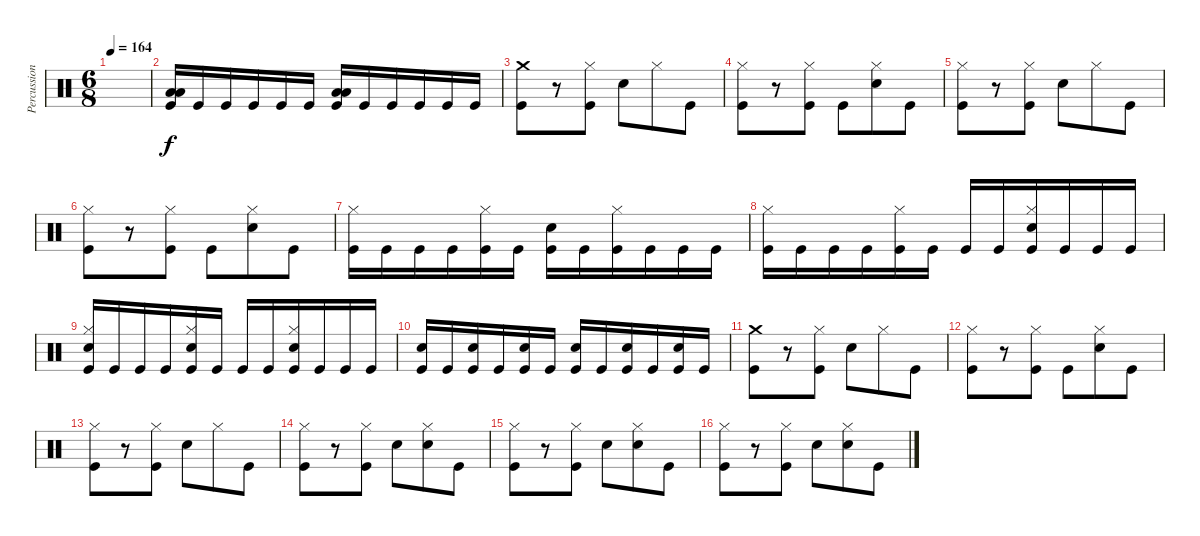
\track ("Percussion" "Percussion") {instrument percussion}
\staff {score}
\articulation defaults
\ts (6 8)
\tempo 164
\clef neutral
\ks c
|
("Low Tom (hit)" "Low Floor Tom (hit)" "Kick (hit)").16{dy f} "Kick (hit)".16 "Kick (hit)".16 "Kick (hit)".16 "Kick (hit)".16 "Kick (hit)".16 ("Low Tom (hit)" "Low Floor Tom (hit)" "Kick (hit)").16 "Kick (hit)".16 "Kick (hit)".16 "Kick (hit)".16 "Kick (hit)".16 "Kick (hit)".16 |
("Crash medium (hit)" "Kick (hit)").8 r.8 ("Hi-Hat (closed)" "Kick (hit)").8 "Snare (hit) 2".8 "Hi-Hat (closed)".8 "Kick (hit)".8 |
("Hi-Hat (closed)" "Kick (hit)").8 r.8 ("Hi-Hat (closed)" "Kick (hit)").8 "Kick (hit)".8 ("Hi-Hat (closed)" "Snare (hit) 2").8 "Kick (hit)".8 |
("Hi-Hat (closed)" "Kick (hit)").8 r.8 ("Hi-Hat (closed)" "Kick (hit)").8 "Snare (hit) 2".8 "Hi-Hat (closed)".8 "Kick (hit)".8 |
("Hi-Hat (closed)" "Kick (hit)").8 r.8 ("Hi-Hat (closed)" "Kick (hit)").8 "Kick (hit)".8 ("Hi-Hat (closed)" "Snare (hit) 2").8 "Kick (hit)".8 |
("Hi-Hat (closed)" "Kick (hit)").16 "Kick (hit)".16 "Kick (hit)".16 "Kick (hit)".16 ("Hi-Hat (closed)" "Kick (hit)").16 "Kick (hit)".16 ("Snare (hit) 2" "Kick (hit)").16 "Kick (hit)".16 ("Hi-Hat (closed)" "Kick (hit)").16 "Kick (hit)".16 "Kick (hit)".16 "Kick (hit)".16 |
("Hi-Hat (closed)" "Kick (hit)").16 "Kick (hit)".16 "Kick (hit)".16 "Kick (hit)".16 ("Hi-Hat (closed)" "Kick (hit)").16 "Kick (hit)".16 "Kick (hit)".16 "Kick (hit)".16 ("Hi-Hat (closed)" "Snare (hit) 2" "Kick (hit)").16 "Kick (hit)".16 "Kick (hit)".16 "Kick (hit)".16 |
("Hi-Hat (closed)" "Snare (hit) 2" "Kick (hit)").16 "Kick (hit)".16 "Kick (hit)".16 "Kick (hit)".16 ("Hi-Hat (closed)" "Snare (hit) 2" "Kick (hit)").16 "Kick (hit)".16 "Kick (hit)".16 "Kick (hit)".16 ("Hi-Hat (closed)" "Snare (hit) 2" "Kick (hit)").16 "Kick (hit)".16 "Kick (hit)".16 "Kick (hit)".16 |
("Snare (hit) 2" "Kick (hit)").16 "Kick (hit)".16 ("Snare (hit) 2" "Kick (hit)").16 "Kick (hit)".16 ("Snare (hit) 2" "Kick (hit)").16 "Kick (hit)".16 ("Snare (hit) 2" "Kick (hit)").16 "Kick (hit)".16 ("Snare (hit) 2" "Kick (hit)").16 "Kick (hit)".16 ("Snare (hit) 2" "Kick (hit)").16 "Kick (hit)".16 |
("Crash medium (hit)" "Kick (hit)").8 r.8 ("Hi-Hat (closed)" "Kick (hit)").8 "Snare (hit) 2".8 "Hi-Hat (closed)".8 "Kick (hit)".8 |
("Hi-Hat (closed)" "Kick (hit)").8 r.8 ("Hi-Hat (closed)" "Kick (hit)").8 "Kick (hit)".8 ("Hi-Hat (closed)" "Snare (hit) 2").8 "Kick (hit)".8 |
("Hi-Hat (closed)" "Kick (hit)").8 r.8 ("Hi-Hat (closed)" "Kick (hit)").8 "Snare (hit) 2".8 "Hi-Hat (closed)".8 "Kick (hit)".8 |
("Hi-Hat (closed)" "Kick (hit)").8 r.8 ("Hi-Hat (closed)" "Kick (hit)").8 "Snare (hit) 2".8 ("Hi-Hat (closed)" "Snare (hit) 2").8 "Kick (hit)".8 |
("Hi-Hat (closed)" "Kick (hit)").8 r.8 ("Hi-Hat (closed)" "Kick (hit)").8 "Snare (hit) 2".8 ("Hi-Hat (closed)" "Snare (hit) 2").8 "Kick (hit)".8 |
("Hi-Hat (closed)" "Kick (hit)").8 r.8 ("Hi-Hat (closed)" "Kick (hit)").8 "Snare (hit) 2".8 ("Hi-Hat (closed)" "Snare (hit) 2").8 "Kick (hit)".8
